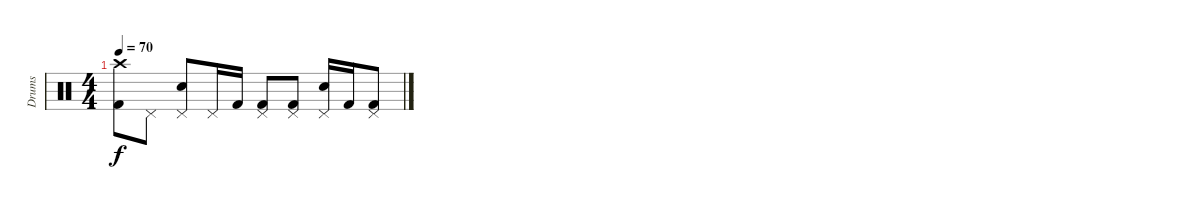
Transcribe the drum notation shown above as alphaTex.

\track ("Drums" "Drums") {instrument percussion}
\staff {score}
\articulation defaults
\ts (4 4)
\tempo 70
\clef neutral
\ks c
("Crash high (hit)" "Kick (hit) 2").8{dy f volume 12} "Pedal Hi-Hat (hit)".8 ("Pedal Hi-Hat (hit)" "Electric Snare (hit)").8 "Pedal Hi-Hat (hit)".16 "Kick (hit) 2".16 ("Pedal Hi-Hat (hit)" "Kick (hit) 2").8 ("Pedal Hi-Hat (hit)" "Kick (hit) 2").8 ("Pedal Hi-Hat (hit)" "Electric Snare (hit)").16 "Kick (hit) 2".16 ("Pedal Hi-Hat (hit)" "Kick (hit) 2").8
